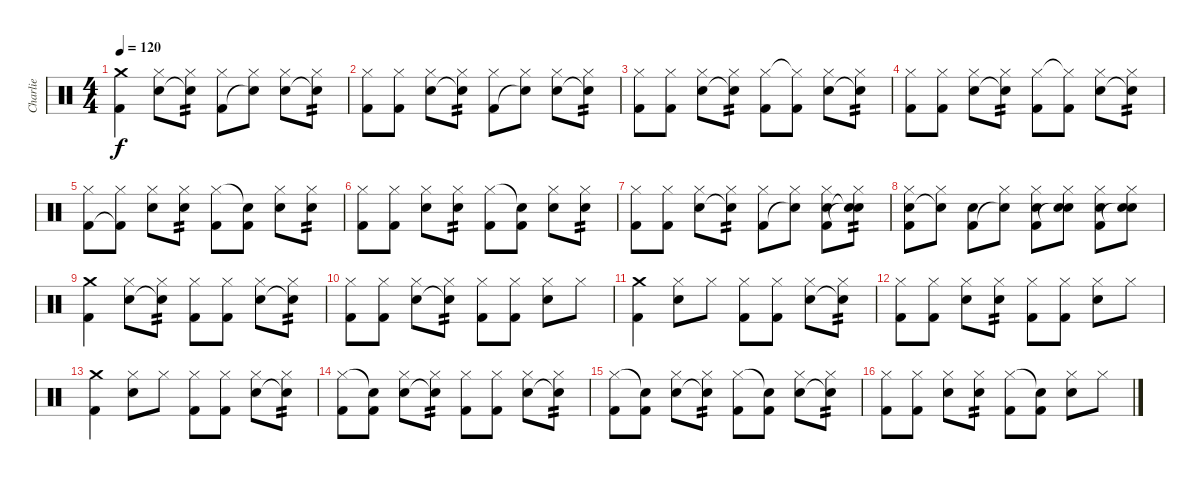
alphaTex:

\track ("Charlie" "Charlie") {instrument percussion}
\staff {score}
\articulation defaults
\ts (4 4)
\tempo 120
\clef neutral
\ks c
("Crash medium (hit)" "Kick (hit) 2").4{dy f} ("Hi-Hat (closed)" "Snare (hit) 2").8 ("Hi-Hat (closed)" "Snare (hit)"{t}).8{tp 2} ("Hi-Hat (closed)" "Kick (hit) 2").8 ("Hi-Hat (closed)" "Snare (hit)"{t}).8 ("Hi-Hat (closed)" "Snare (hit) 2").8 ("Hi-Hat (closed)" "Snare (hit)"{t}).8{tp 2} |
("Hi-Hat (closed)" "Kick (hit) 2").8 ("Hi-Hat (closed)" "Kick (hit) 2").8 ("Hi-Hat (closed)" "Snare (hit) 2").8 ("Hi-Hat (closed)" "Snare (hit)"{t}).8{tp 2} ("Hi-Hat (closed)" "Kick (hit) 2").8 ("Hi-Hat (closed)" "Snare (hit)"{t}).8 ("Hi-Hat (closed)" "Snare (hit) 2").8 ("Hi-Hat (closed)" "Snare (hit)"{t}).8{tp 2} |
("Hi-Hat (closed)" "Kick (hit) 2").8 ("Hi-Hat (closed)" "Kick (hit) 2").8 ("Hi-Hat (closed)" "Snare (hit) 2").8 ("Hi-Hat (closed)" "Snare (hit)"{t}).8{tp 2} ("Hi-Hat (closed)" "Kick (hit) 2").8 ("Hi-Hat (closed)"{t} "Kick (hit) 2").8 ("Hi-Hat (closed)" "Snare (hit) 2").8 ("Hi-Hat (closed)" "Snare (hit)"{t}).8{tp 2} |
("Hi-Hat (closed)" "Kick (hit) 2").8 ("Hi-Hat (closed)" "Kick (hit) 2").8 ("Hi-Hat (closed)" "Snare (hit) 2").8 ("Hi-Hat (closed)" "Snare (hit)"{t}).8{tp 2} ("Hi-Hat (closed)" "Kick (hit) 2").8 ("Hi-Hat (closed)"{t} "Kick (hit) 2").8 ("Hi-Hat (closed)" "Snare (hit) 2").8 ("Hi-Hat (closed)" "Snare (hit)"{t}).8{tp 2} |
("Hi-Hat (closed)" "Kick (hit) 2").8 ("Hi-Hat (closed)" "Kick (hit) 2"{t}).8 ("Hi-Hat (closed)" "Snare (hit) 2").8 ("Hi-Hat (closed)" "Snare (hit) 2").8{tp 2} ("Hi-Hat (closed)" "Kick (hit) 2").8 ("Snare (hit)"{t} "Kick (hit) 2").8 ("Hi-Hat (closed)" "Snare (hit) 2").8 ("Hi-Hat (closed)" "Snare (hit) 2").8{tp 2} |
("Hi-Hat (closed)" "Kick (hit) 2").8 ("Hi-Hat (closed)" "Kick (hit) 2").8 ("Hi-Hat (closed)" "Snare (hit) 2").8 ("Hi-Hat (closed)" "Snare (hit) 2").8{tp 2} ("Hi-Hat (closed)" "Kick (hit) 2").8 ("Snare (hit)"{t} "Kick (hit) 2").8 ("Hi-Hat (closed)" "Snare (hit) 2").8 ("Hi-Hat (closed)" "Snare (hit) 2").8{tp 2} |
("Hi-Hat (closed)" "Kick (hit) 2").8 ("Hi-Hat (closed)" "Kick (hit) 2").8 ("Hi-Hat (closed)" "Snare (hit) 2").8 ("Hi-Hat (closed)" "Snare (hit)"{t}).8{tp 2} ("Hi-Hat (closed)" "Kick (hit) 2").8 ("Hi-Hat (closed)" "Snare (hit)"{t}).8 ("Hi-Hat (closed)" "Snare (hit) 2" "Kick (hit) 2").8 ("Hi-Hat (closed)" "Snare (hit)"{t} "Snare (hit)"{t}).8{tp 2} |
("Hi-Hat (closed)" "Snare (hit) 2" "Kick (hit) 2").8 ("Hi-Hat (closed)" "Snare (hit)"{t}).8 ("Snare (hit) 2" "Kick (hit) 2").8 ("Hi-Hat (closed)" "Snare (hit)"{t}).8 ("Hi-Hat (closed)" "Snare (hit) 2" "Kick (hit) 2").8 ("Hi-Hat (closed)" "Snare (hit) 2" "Snare (hit)"{t}).8 ("Hi-Hat (closed)" "Snare (hit) 2" "Kick (hit) 2").8 ("Hi-Hat (closed)" "Snare (hit) 2" "Snare (hit)"{t}).8 |
("Crash medium (hit)" "Kick (hit) 2").4 ("Hi-Hat (closed)" "Snare (hit) 2").8 ("Hi-Hat (closed)" "Snare (hit)"{t}).8{tp 2} ("Hi-Hat (closed)" "Kick (hit) 2").8 ("Hi-Hat (closed)" "Kick (hit) 2").8 ("Hi-Hat (closed)" "Snare (hit) 2").8 ("Hi-Hat (closed)" "Snare (hit)"{t}).8{tp 2} |
("Hi-Hat (closed)" "Kick (hit) 2").8 ("Hi-Hat (closed)" "Kick (hit) 2"{x}).8 ("Hi-Hat (closed)" "Snare (hit) 2").8 ("Hi-Hat (closed)" "Snare (hit)"{t}).8{tp 2} ("Hi-Hat (closed)" "Kick (hit) 2").8 ("Hi-Hat (closed)" "Kick (hit) 2").8 ("Hi-Hat (closed)" "Snare (hit) 2").8 "Hi-Hat (closed)".8 |
("Crash medium (hit)" "Kick (hit) 2").4 ("Hi-Hat (closed)" "Snare (hit) 2").8 "Hi-Hat (closed)".8 ("Hi-Hat (closed)" "Kick (hit) 2").8 ("Hi-Hat (closed)" "Kick (hit) 2").8 ("Hi-Hat (closed)" "Snare (hit) 2").8 ("Hi-Hat (closed)" "Snare (hit)"{t}).8{tp 2} |
("Hi-Hat (closed)" "Kick (hit) 2").8 ("Hi-Hat (closed)" "Kick (hit) 2").8 ("Hi-Hat (closed)" "Snare (hit) 2").8 ("Hi-Hat (closed)" "Snare (hit) 2").8{tp 2} ("Hi-Hat (closed)" "Kick (hit) 2").8 ("Hi-Hat (closed)" "Kick (hit) 2").8 ("Hi-Hat (closed)" "Snare (hit) 2").8 "Hi-Hat (closed)".8 |
("Crash medium (hit)" "Kick (hit) 2").4 ("Hi-Hat (closed)" "Snare (hit) 2").8 "Hi-Hat (closed)".8 ("Hi-Hat (closed)" "Kick (hit) 2").8 ("Hi-Hat (closed)" "Kick (hit) 2").8 ("Hi-Hat (closed)" "Snare (hit) 2").8 ("Hi-Hat (closed)" "Snare (hit)"{t}).8{tp 2} |
("Hi-Hat (closed)" "Kick (hit) 2").8 ("Snare (hit)"{t} "Kick (hit) 2").8 ("Hi-Hat (closed)" "Snare (hit) 2").8 ("Hi-Hat (closed)" "Snare (hit)"{t}).8{tp 2} ("Hi-Hat (closed)" "Kick (hit) 2").8 ("Hi-Hat (closed)" "Kick (hit) 2").8 ("Hi-Hat (closed)" "Snare (hit) 2").8 ("Hi-Hat (closed)" "Snare (hit)"{t}).8{tp 2} |
("Hi-Hat (closed)" "Kick (hit) 2").8 ("Snare (hit)"{t} "Kick (hit) 2").8 ("Hi-Hat (closed)" "Snare (hit) 2").8 ("Hi-Hat (closed)" "Snare (hit) 2"{t}).8{tp 2} ("Hi-Hat (closed)" "Kick (hit) 2").8 ("Snare (hit)"{t} "Kick (hit) 2").8 ("Hi-Hat (closed)" "Snare (hit) 2").8 ("Hi-Hat (closed)" "Snare (hit) 2"{t}).8{tp 2} |
("Hi-Hat (closed)" "Kick (hit) 2").8 ("Hi-Hat (closed)" "Kick (hit) 2").8 ("Hi-Hat (closed)" "Snare (hit) 2").8 ("Hi-Hat (closed)" "Snare (hit) 2").8{tp 2} ("Hi-Hat (closed)" "Kick (hit) 2").8 ("Snare (hit)"{t} "Kick (hit) 2").8 ("Hi-Hat (closed)" "Snare (hit) 2").8 "Hi-Hat (closed)".8
